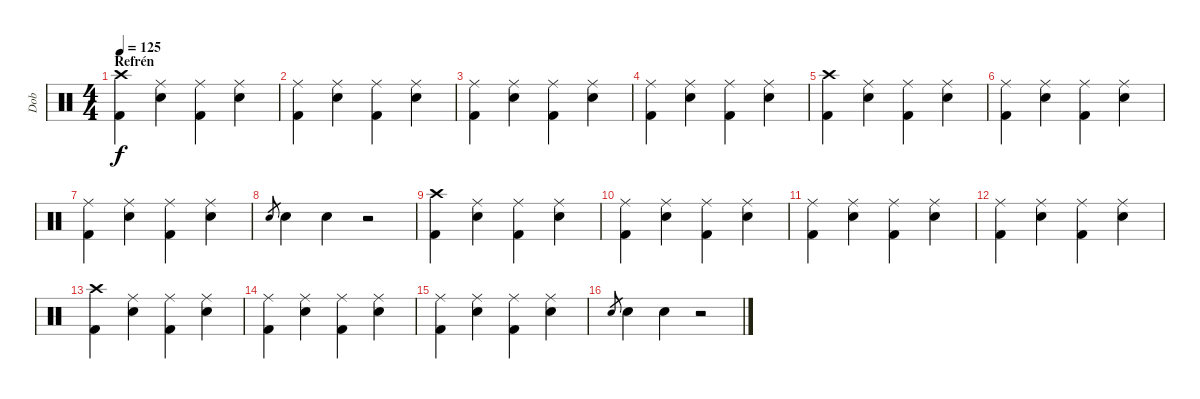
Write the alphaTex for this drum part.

\track ("Dob" "Dob") {instrument percussion}
\staff {score}
\articulation defaults
\ts (4 4)
\section ("" "Refrén")
\tempo 125
\clef neutral
\ks c
("Crash high (hit)" "Kick (hit) 2").4{dy f} ("Ride (middle)" "Electric Snare (hit)").4 ("Ride (middle)" "Kick (hit) 2").4 ("Ride (middle)" "Electric Snare (hit)").4 |
("Ride (middle)" "Kick (hit) 2").4 ("Ride (middle)" "Electric Snare (hit)").4 ("Ride (middle)" "Kick (hit) 2").4 ("Ride (middle)" "Electric Snare (hit)").4 |
("Ride (middle)" "Kick (hit) 2").4 ("Ride (middle)" "Electric Snare (hit)").4 ("Ride (middle)" "Kick (hit) 2").4 ("Ride (middle)" "Electric Snare (hit)").4 |
("Ride (middle)" "Kick (hit) 2").4 ("Ride (middle)" "Electric Snare (hit)").4 ("Ride (middle)" "Kick (hit) 2").4 ("Ride (middle)" "Electric Snare (hit)").4 |
("Crash high (hit)" "Kick (hit) 2").4 ("Ride (middle)" "Electric Snare (hit)").4 ("Ride (middle)" "Kick (hit) 2").4 ("Ride (middle)" "Electric Snare (hit)").4 |
("Ride (middle)" "Kick (hit) 2").4 ("Ride (middle)" "Electric Snare (hit)").4 ("Ride (middle)" "Kick (hit) 2").4 ("Ride (middle)" "Electric Snare (hit)").4 |
("Ride (middle)" "Kick (hit) 2").4 ("Ride (middle)" "Electric Snare (hit)").4 ("Ride (middle)" "Kick (hit) 2").4 ("Ride (middle)" "Electric Snare (hit)").4 |
"Electric Snare (hit)".8{gr} "Electric Snare (hit)".4 "Electric Snare (hit)".4 r.2 |
("Crash high (hit)" "Kick (hit) 2").4 ("Ride (middle)" "Electric Snare (hit)").4 ("Ride (middle)" "Kick (hit) 2").4 ("Ride (middle)" "Electric Snare (hit)").4 |
("Ride (middle)" "Kick (hit) 2").4 ("Ride (middle)" "Electric Snare (hit)").4 ("Ride (middle)" "Kick (hit) 2").4 ("Ride (middle)" "Electric Snare (hit)").4 |
("Ride (middle)" "Kick (hit) 2").4 ("Ride (middle)" "Electric Snare (hit)").4 ("Ride (middle)" "Kick (hit) 2").4 ("Ride (middle)" "Electric Snare (hit)").4 |
("Ride (middle)" "Kick (hit) 2").4 ("Ride (middle)" "Electric Snare (hit)").4 ("Ride (middle)" "Kick (hit) 2").4 ("Ride (middle)" "Electric Snare (hit)").4 |
("Crash high (hit)" "Kick (hit) 2").4 ("Ride (middle)" "Electric Snare (hit)").4 ("Ride (middle)" "Kick (hit) 2").4 ("Ride (middle)" "Electric Snare (hit)").4 |
("Ride (middle)" "Kick (hit) 2").4 ("Ride (middle)" "Electric Snare (hit)").4 ("Ride (middle)" "Kick (hit) 2").4 ("Ride (middle)" "Electric Snare (hit)").4 |
("Ride (middle)" "Kick (hit) 2").4 ("Ride (middle)" "Electric Snare (hit)").4 ("Ride (middle)" "Kick (hit) 2").4 ("Ride (middle)" "Electric Snare (hit)").4 |
"Electric Snare (hit)".8{gr} "Electric Snare (hit)".4 "Electric Snare (hit)".4 r.2
